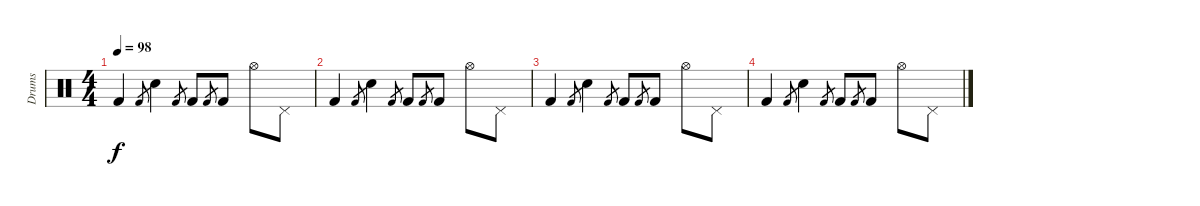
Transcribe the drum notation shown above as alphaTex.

\track ("Drums" "Drums") {instrument percussion}
\staff {score}
\articulation defaults
\ts (4 4)
\tempo 98
\clef neutral
\ks c "Kick (hit) 2".4{dy f} "Kick (hit) 2".8{gr} "Snare (hit) 2".4 "Kick (hit) 2".8{gr} "Kick (hit) 2".8 "Kick (hit) 2".8{gr} "Kick (hit) 2".8 "Hi-Hat (open)".8 "Pedal Hi-Hat (hit)".8
|
"Kick (hit) 2".4 "Kick (hit) 2".8{gr} "Snare (hit) 2".4 "Kick (hit) 2".8{gr} "Kick (hit) 2".8 "Kick (hit) 2".8{gr} "Kick (hit) 2".8 "Hi-Hat (open)".8 "Pedal Hi-Hat (hit)".8 |
"Kick (hit) 2".4 "Kick (hit) 2".8{gr} "Snare (hit) 2".4 "Kick (hit) 2".8{gr} "Kick (hit) 2".8 "Kick (hit) 2".8{gr} "Kick (hit) 2".8 "Hi-Hat (open)".8 "Pedal Hi-Hat (hit)".8 |
"Kick (hit) 2".4 "Kick (hit) 2".8{gr} "Snare (hit) 2".4 "Kick (hit) 2".8{gr} "Kick (hit) 2".8 "Kick (hit) 2".8{gr} "Kick (hit) 2".8 "Hi-Hat (open)".8 "Pedal Hi-Hat (hit)".8
